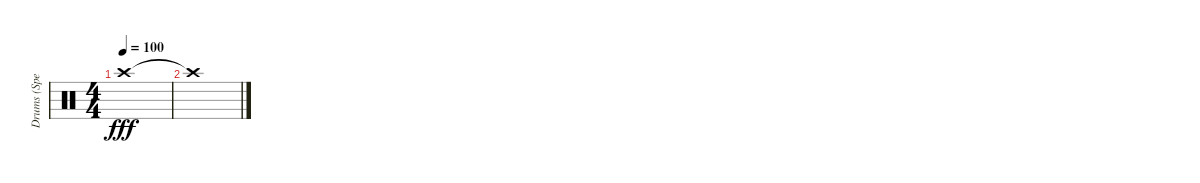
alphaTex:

\track ("Drums (Spencer Dryden)" "Drums (Spe") {instrument percussion}
\staff {score}
\articulation defaults
\ts (4 4)
\tempo 100
\clef neutral
\ks c "Crash high (hit)".1{dy fff}
|
"Crash high (hit)"{t}.1
